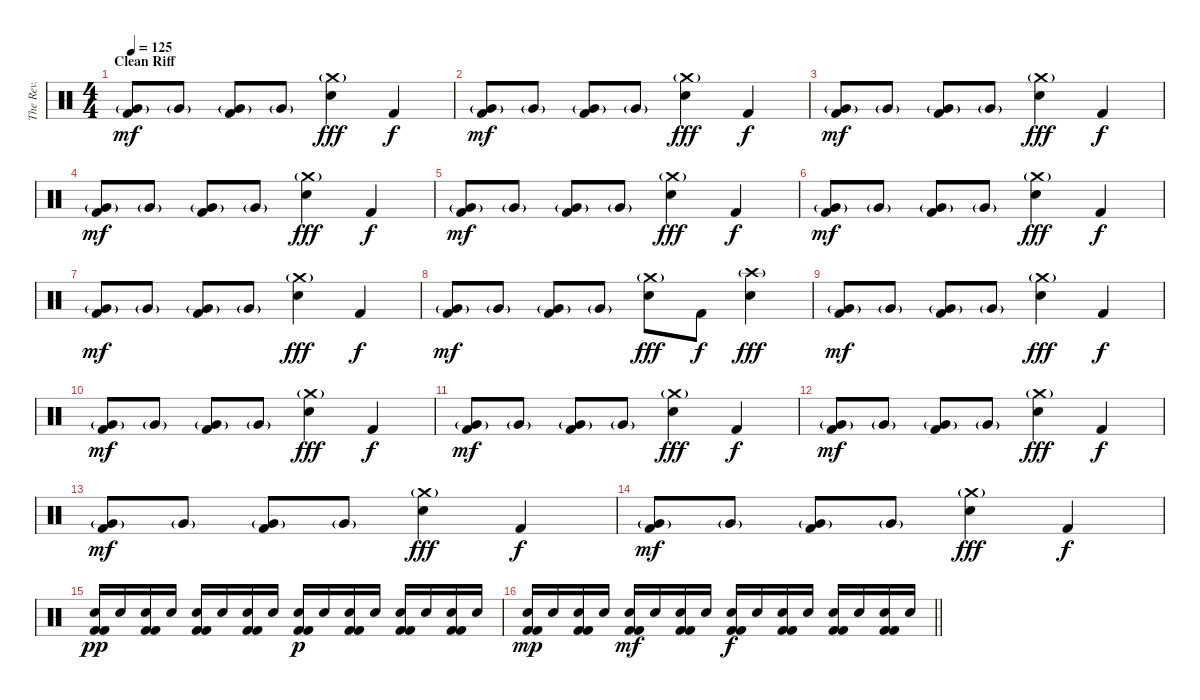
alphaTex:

\track ("The Rev." "The Rev.") {instrument percussion}
\staff {score}
\articulation defaults
\ts (4 4)
\section ("" "Clean Riff")
\tempo 125
\clef neutral
\ks c
("Very Low Tom (hit)"{g} "Kick (hit) 2").8{dy mf} "Very Low Tom (hit)"{g}.8 ("Very Low Tom (hit)"{g} "Kick (hit) 2").8 "Very Low Tom (hit)"{g}.8 ("Crash medium (hit)"{g} "Electric Snare (hit)").4{dy fff} "Kick (hit) 2".4{dy f} |
("Very Low Tom (hit)"{g} "Kick (hit) 2").8{dy mf} "Very Low Tom (hit)"{g}.8 ("Very Low Tom (hit)"{g} "Kick (hit) 2").8 "Very Low Tom (hit)"{g}.8 ("Crash medium (hit)"{g} "Electric Snare (hit)").4{dy fff} "Kick (hit) 2".4{dy f} |
("Very Low Tom (hit)"{g} "Kick (hit) 2").8{dy mf} "Very Low Tom (hit)"{g}.8 ("Very Low Tom (hit)"{g} "Kick (hit) 2").8 "Very Low Tom (hit)"{g}.8 ("Crash medium (hit)"{g} "Electric Snare (hit)").4{dy fff} "Kick (hit) 2".4{dy f} |
("Very Low Tom (hit)"{g} "Kick (hit) 2").8{dy mf} "Very Low Tom (hit)"{g}.8 ("Very Low Tom (hit)"{g} "Kick (hit) 2").8 "Very Low Tom (hit)"{g}.8 ("Crash medium (hit)"{g} "Electric Snare (hit)").4{dy fff} "Kick (hit) 2".4{dy f} |
("Very Low Tom (hit)"{g} "Kick (hit) 2").8{dy mf} "Very Low Tom (hit)"{g}.8 ("Very Low Tom (hit)"{g} "Kick (hit) 2").8 "Very Low Tom (hit)"{g}.8 ("Crash medium (hit)"{g} "Electric Snare (hit)").4{dy fff} "Kick (hit) 2".4{dy f} |
("Very Low Tom (hit)"{g} "Kick (hit) 2").8{dy mf} "Very Low Tom (hit)"{g}.8 ("Very Low Tom (hit)"{g} "Kick (hit) 2").8 "Very Low Tom (hit)"{g}.8 ("Crash medium (hit)"{g} "Electric Snare (hit)").4{dy fff} "Kick (hit) 2".4{dy f} |
("Very Low Tom (hit)"{g} "Kick (hit) 2").8{dy mf} "Very Low Tom (hit)"{g}.8 ("Very Low Tom (hit)"{g} "Kick (hit) 2").8 "Very Low Tom (hit)"{g}.8 ("Crash medium (hit)"{g} "Electric Snare (hit)").4{dy fff} "Kick (hit) 2".4{dy f} |
("Very Low Tom (hit)"{g} "Kick (hit) 2").8{dy mf} "Very Low Tom (hit)"{g}.8 ("Very Low Tom (hit)"{g} "Kick (hit) 2").8 "Very Low Tom (hit)"{g}.8 ("Crash medium (hit)"{g} "Electric Snare (hit)").8{dy fff} "Kick (hit) 2".8{dy f} ("Crash high (hit)"{g} "Electric Snare (hit)").4{dy fff} |
("Very Low Tom (hit)"{g} "Kick (hit) 2").8{dy mf} "Very Low Tom (hit)"{g}.8 ("Very Low Tom (hit)"{g} "Kick (hit) 2").8 "Very Low Tom (hit)"{g}.8 ("Crash medium (hit)"{g} "Electric Snare (hit)").4{dy fff} "Kick (hit) 2".4{dy f} |
("Very Low Tom (hit)"{g} "Kick (hit) 2").8{dy mf} "Very Low Tom (hit)"{g}.8 ("Very Low Tom (hit)"{g} "Kick (hit) 2").8 "Very Low Tom (hit)"{g}.8 ("Crash medium (hit)"{g} "Electric Snare (hit)").4{dy fff} "Kick (hit) 2".4{dy f} |
("Very Low Tom (hit)"{g} "Kick (hit) 2").8{dy mf} "Very Low Tom (hit)"{g}.8 ("Very Low Tom (hit)"{g} "Kick (hit) 2").8 "Very Low Tom (hit)"{g}.8 ("Crash medium (hit)"{g} "Electric Snare (hit)").4{dy fff} "Kick (hit) 2".4{dy f} |
("Very Low Tom (hit)"{g} "Kick (hit) 2").8{dy mf} "Very Low Tom (hit)"{g}.8 ("Very Low Tom (hit)"{g} "Kick (hit) 2").8 "Very Low Tom (hit)"{g}.8 ("Crash medium (hit)"{g} "Electric Snare (hit)").4{dy fff} "Kick (hit) 2".4{dy f} |
("Very Low Tom (hit)"{g} "Kick (hit) 2").8{dy mf} "Very Low Tom (hit)"{g}.8 ("Very Low Tom (hit)"{g} "Kick (hit) 2").8 "Very Low Tom (hit)"{g}.8 ("Crash medium (hit)"{g} "Electric Snare (hit)").4{dy fff} "Kick (hit) 2".4{dy f} |
("Very Low Tom (hit)"{g} "Kick (hit) 2").8{dy mf} "Very Low Tom (hit)"{g}.8 ("Very Low Tom (hit)"{g} "Kick (hit) 2").8 "Very Low Tom (hit)"{g}.8 ("Crash medium (hit)"{g} "Electric Snare (hit)").4{dy fff} "Kick (hit) 2".4{dy f} |
("Electric Snare (hit)" "Kick (hit) 2" "Kick (hit) 2").16{dy pp} "Electric Snare (hit)".16 ("Electric Snare (hit)" "Kick (hit) 2" "Kick (hit) 2").16 "Electric Snare (hit)".16 ("Electric Snare (hit)" "Kick (hit) 2" "Kick (hit) 2").16 "Electric Snare (hit)".16 ("Electric Snare (hit)" "Kick (hit) 2" "Kick (hit) 2").16 "Electric Snare (hit)".16 ("Electric Snare (hit)" "Kick (hit) 2" "Kick (hit) 2").16{dy p} "Electric Snare (hit)".16 ("Electric Snare (hit)" "Kick (hit) 2" "Kick (hit) 2").16 "Electric Snare (hit)".16 ("Electric Snare (hit)" "Kick (hit) 2" "Kick (hit) 2").16 "Electric Snare (hit)".16 ("Electric Snare (hit)" "Kick (hit) 2" "Kick (hit) 2").16 "Electric Snare (hit)".16 |
\barLineRight lightlight
("Electric Snare (hit)" "Kick (hit) 2" "Kick (hit) 2").16{dy mp} "Electric Snare (hit)".16 ("Electric Snare (hit)" "Kick (hit) 2" "Kick (hit) 2").16 "Electric Snare (hit)".16 ("Electric Snare (hit)" "Kick (hit) 2" "Kick (hit) 2").16{dy mf} "Electric Snare (hit)".16 ("Electric Snare (hit)" "Kick (hit) 2" "Kick (hit) 2").16 "Electric Snare (hit)".16 ("Electric Snare (hit)" "Kick (hit) 2" "Kick (hit) 2").16{dy f} "Electric Snare (hit)".16 ("Electric Snare (hit)" "Kick (hit) 2" "Kick (hit) 2").16 "Electric Snare (hit)".16 ("Electric Snare (hit)" "Kick (hit) 2" "Kick (hit) 2").16 "Electric Snare (hit)".16 ("Electric Snare (hit)" "Kick (hit) 2" "Kick (hit) 2").16 "Electric Snare (hit)".16
